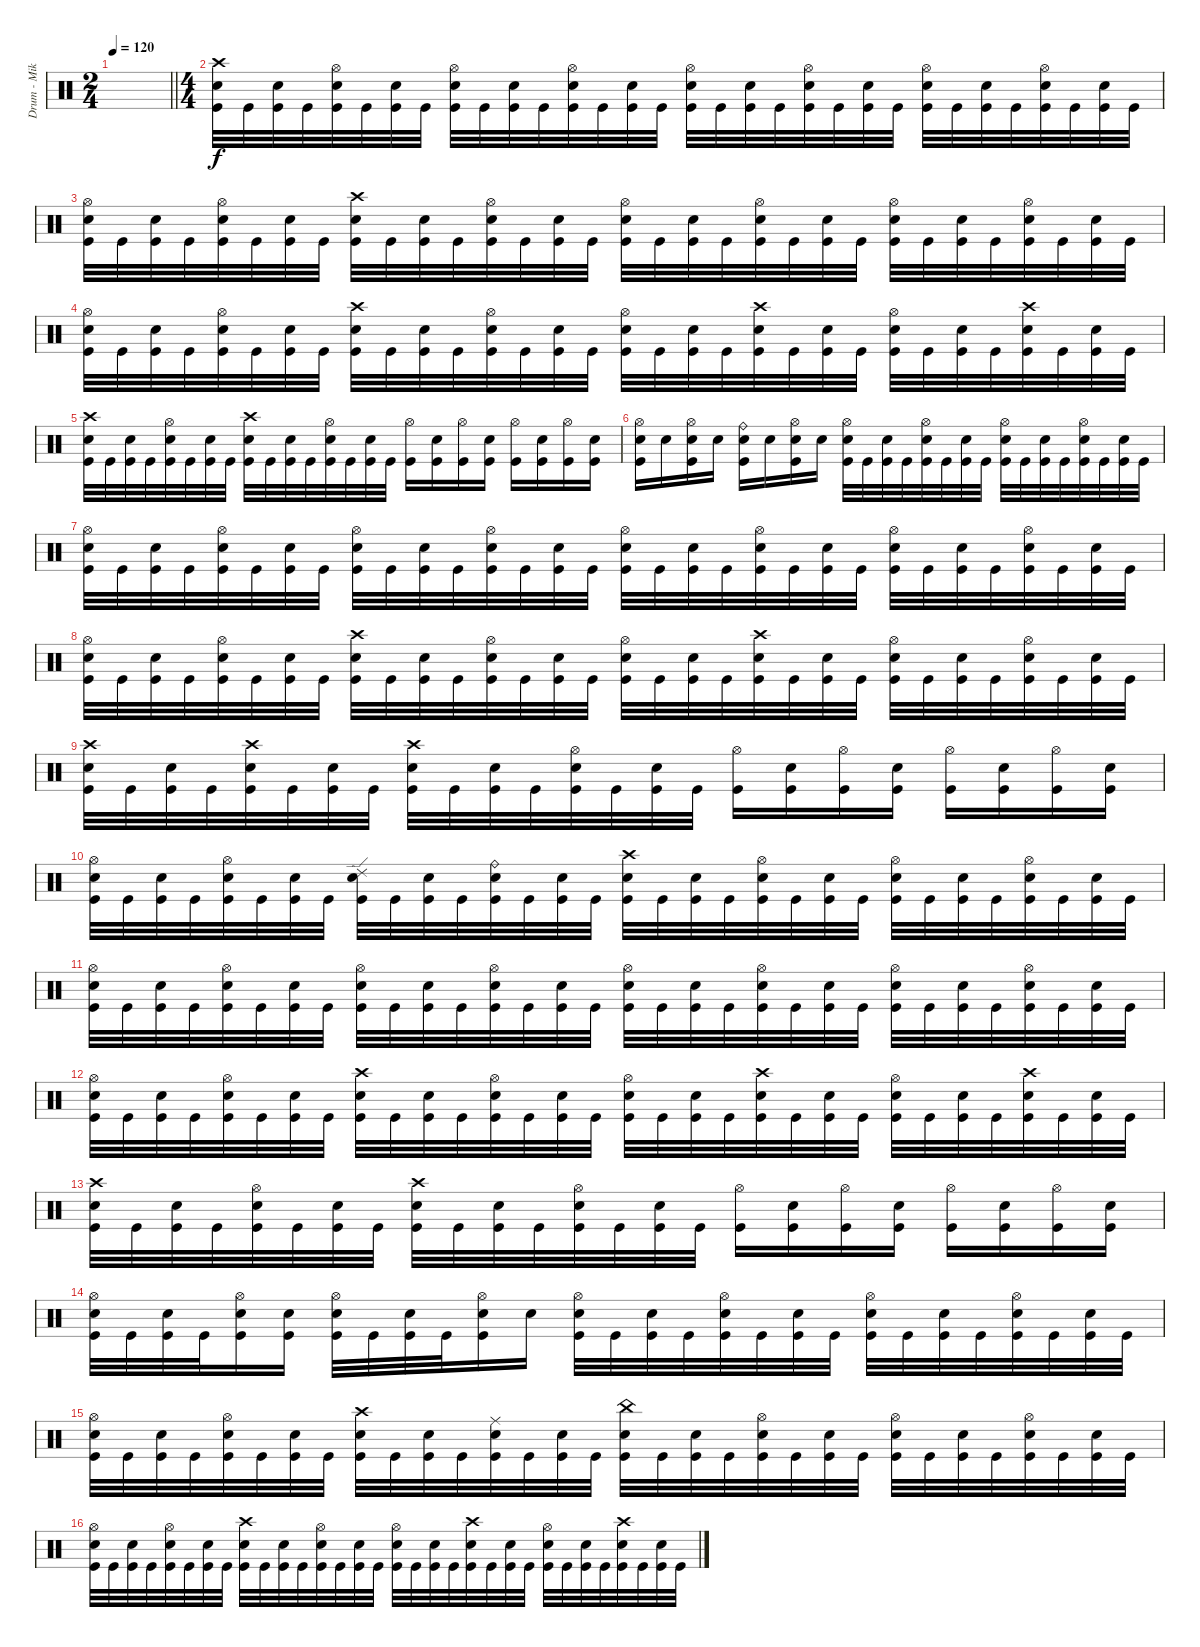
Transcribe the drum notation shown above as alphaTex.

\track ("Drum - Mike Collins" "Drum - Mik") {instrument percussion}
\staff {score}
\articulation defaults
\ts (2 4)
\tempo 120
\clef neutral
\barLineRight lightlight
\ks c
|
\ts (4 4)
("Crash high (hit)" "Electric Snare (hit)" "Kick (hit)").32 "Kick (hit)".32 ("Electric Snare (hit)" "Kick (hit)").32 "Kick (hit)".32 ("Hi-Hat (open)" "Electric Snare (hit)" "Kick (hit)").32 "Kick (hit)".32 ("Electric Snare (hit)" "Kick (hit)").32 "Kick (hit)".32 ("Hi-Hat (open)" "Electric Snare (hit)" "Kick (hit)").32 "Kick (hit)".32 ("Electric Snare (hit)" "Kick (hit)").32 "Kick (hit)".32 ("Hi-Hat (open)" "Electric Snare (hit)" "Kick (hit)").32 "Kick (hit)".32 ("Electric Snare (hit)" "Kick (hit)").32 "Kick (hit)".32 ("Hi-Hat (open)" "Electric Snare (hit)" "Kick (hit)").32 "Kick (hit)".32 ("Electric Snare (hit)" "Kick (hit)").32 "Kick (hit)".32 ("Hi-Hat (open)" "Electric Snare (hit)" "Kick (hit)").32 "Kick (hit)".32 ("Electric Snare (hit)" "Kick (hit)").32 "Kick (hit)".32 ("Hi-Hat (open)" "Electric Snare (hit)" "Kick (hit)").32 "Kick (hit)".32 ("Electric Snare (hit)" "Kick (hit)").32 "Kick (hit)".32 ("Hi-Hat (open)" "Electric Snare (hit)" "Kick (hit)").32 "Kick (hit)".32 ("Electric Snare (hit)" "Kick (hit)").32 "Kick (hit)".32 |
("Hi-Hat (open)" "Electric Snare (hit)" "Kick (hit)").32 "Kick (hit)".32 ("Electric Snare (hit)" "Kick (hit)").32 "Kick (hit)".32 ("Hi-Hat (open)" "Electric Snare (hit)" "Kick (hit)").32 "Kick (hit)".32 ("Electric Snare (hit)" "Kick (hit)").32 "Kick (hit)".32 ("Crash high (hit)" "Electric Snare (hit)" "Kick (hit)").32 "Kick (hit)".32 ("Electric Snare (hit)" "Kick (hit)").32 "Kick (hit)".32 ("Hi-Hat (open)" "Electric Snare (hit)" "Kick (hit)").32 "Kick (hit)".32 ("Electric Snare (hit)" "Kick (hit)").32 "Kick (hit)".32 ("Hi-Hat (open)" "Electric Snare (hit)" "Kick (hit)").32 "Kick (hit)".32 ("Electric Snare (hit)" "Kick (hit)").32 "Kick (hit)".32 ("Hi-Hat (open)" "Electric Snare (hit)" "Kick (hit)").32 "Kick (hit)".32 ("Electric Snare (hit)" "Kick (hit)").32 "Kick (hit)".32 ("Hi-Hat (open)" "Electric Snare (hit)" "Kick (hit)").32 "Kick (hit)".32 ("Electric Snare (hit)" "Kick (hit)").32 "Kick (hit)".32 ("Hi-Hat (open)" "Electric Snare (hit)" "Kick (hit)").32 "Kick (hit)".32 ("Electric Snare (hit)" "Kick (hit)").32 "Kick (hit)".32 |
("Hi-Hat (open)" "Electric Snare (hit)" "Kick (hit)").32 "Kick (hit)".32 ("Electric Snare (hit)" "Kick (hit)").32 "Kick (hit)".32 ("Hi-Hat (open)" "Electric Snare (hit)" "Kick (hit)").32 "Kick (hit)".32 ("Electric Snare (hit)" "Kick (hit)").32 "Kick (hit)".32 ("Crash high (hit)" "Electric Snare (hit)" "Kick (hit)").32 "Kick (hit)".32 ("Electric Snare (hit)" "Kick (hit)").32 "Kick (hit)".32 ("Hi-Hat (open)" "Electric Snare (hit)" "Kick (hit)").32 "Kick (hit)".32 ("Electric Snare (hit)" "Kick (hit)").32 "Kick (hit)".32 ("Hi-Hat (open)" "Electric Snare (hit)" "Kick (hit)").32 "Kick (hit)".32 ("Electric Snare (hit)" "Kick (hit)").32 "Kick (hit)".32 ("Crash high (hit)" "Electric Snare (hit)" "Kick (hit)").32 "Kick (hit)".32 ("Electric Snare (hit)" "Kick (hit)").32 "Kick (hit)".32 ("Hi-Hat (open)" "Electric Snare (hit)" "Kick (hit)").32 "Kick (hit)".32 ("Electric Snare (hit)" "Kick (hit)").32 "Kick (hit)".32 ("Crash high (hit)" "Electric Snare (hit)" "Kick (hit)").32 "Kick (hit)".32 ("Electric Snare (hit)" "Kick (hit)").32 "Kick (hit)".32 |
("Crash high (hit)" "Electric Snare (hit)" "Kick (hit)").32 "Kick (hit)".32 ("Electric Snare (hit)" "Kick (hit)").32 "Kick (hit)".32 ("Hi-Hat (open)" "Electric Snare (hit)" "Kick (hit)").32 "Kick (hit)".32 ("Electric Snare (hit)" "Kick (hit)").32 "Kick (hit)".32 ("Crash high (hit)" "Electric Snare (hit)" "Kick (hit)").32 "Kick (hit)".32 ("Electric Snare (hit)" "Kick (hit)").32 "Kick (hit)".32 ("Hi-Hat (open)" "Electric Snare (hit)" "Kick (hit)").32 "Kick (hit)".32 ("Electric Snare (hit)" "Kick (hit)").32 "Kick (hit)".32 ("Hi-Hat (open)" "Kick (hit)").16 ("Electric Snare (hit)" "Kick (hit)").16 ("Hi-Hat (open)" "Kick (hit)").16 ("Electric Snare (hit)" "Kick (hit)").16 ("Hi-Hat (open)" "Kick (hit)").16 ("Electric Snare (hit)" "Kick (hit)").16 ("Hi-Hat (open)" "Kick (hit)").16 ("Electric Snare (hit)" "Kick (hit)").16 |
("Hi-Hat (open)" "Electric Snare (hit)" "Kick (hit)").16 "Electric Snare (hit)".16 ("Hi-Hat (open)" "Electric Snare (hit)" "Kick (hit)").16 "Electric Snare (hit)".16 ("Ride (bell)" "Electric Snare (hit)" "Kick (hit)").16 "Electric Snare (hit)".16 ("Hi-Hat (open)" "Electric Snare (hit)" "Kick (hit)").16 "Electric Snare (hit)".16 ("Hi-Hat (open)" "Electric Snare (hit)" "Kick (hit)").32 "Kick (hit)".32 ("Electric Snare (hit)" "Kick (hit)").32 "Kick (hit)".32 ("Hi-Hat (open)" "Electric Snare (hit)" "Kick (hit)").32 "Kick (hit)".32 ("Electric Snare (hit)" "Kick (hit)").32 "Kick (hit)".32 ("Hi-Hat (open)" "Electric Snare (hit)" "Kick (hit)").32 "Kick (hit)".32 ("Electric Snare (hit)" "Kick (hit)").32 "Kick (hit)".32 ("Hi-Hat (open)" "Electric Snare (hit)" "Kick (hit)").32 "Kick (hit)".32 ("Electric Snare (hit)" "Kick (hit)").32 "Kick (hit)".32 |
("Hi-Hat (open)" "Electric Snare (hit)" "Kick (hit)").32 "Kick (hit)".32 ("Electric Snare (hit)" "Kick (hit)").32 "Kick (hit)".32 ("Hi-Hat (open)" "Electric Snare (hit)" "Kick (hit)").32 "Kick (hit)".32 ("Electric Snare (hit)" "Kick (hit)").32 "Kick (hit)".32 ("Hi-Hat (open)" "Electric Snare (hit)" "Kick (hit)").32 "Kick (hit)".32 ("Electric Snare (hit)" "Kick (hit)").32 "Kick (hit)".32 ("Hi-Hat (open)" "Electric Snare (hit)" "Kick (hit)").32 "Kick (hit)".32 ("Electric Snare (hit)" "Kick (hit)").32 "Kick (hit)".32 ("Hi-Hat (open)" "Electric Snare (hit)" "Kick (hit)").32 "Kick (hit)".32 ("Electric Snare (hit)" "Kick (hit)").32 "Kick (hit)".32 ("Hi-Hat (open)" "Electric Snare (hit)" "Kick (hit)").32 "Kick (hit)".32 ("Electric Snare (hit)" "Kick (hit)").32 "Kick (hit)".32 ("Hi-Hat (open)" "Electric Snare (hit)" "Kick (hit)").32 "Kick (hit)".32 ("Electric Snare (hit)" "Kick (hit)").32 "Kick (hit)".32 ("Hi-Hat (open)" "Electric Snare (hit)" "Kick (hit)").32 "Kick (hit)".32 ("Electric Snare (hit)" "Kick (hit)").32 "Kick (hit)".32 |
("Hi-Hat (open)" "Electric Snare (hit)" "Kick (hit)").32 "Kick (hit)".32 ("Electric Snare (hit)" "Kick (hit)").32 "Kick (hit)".32 ("Hi-Hat (open)" "Electric Snare (hit)" "Kick (hit)").32 "Kick (hit)".32 ("Electric Snare (hit)" "Kick (hit)").32 "Kick (hit)".32 ("Crash high (hit)" "Electric Snare (hit)" "Kick (hit)").32 "Kick (hit)".32 ("Electric Snare (hit)" "Kick (hit)").32 "Kick (hit)".32 ("Hi-Hat (open)" "Electric Snare (hit)" "Kick (hit)").32 "Kick (hit)".32 ("Electric Snare (hit)" "Kick (hit)").32 "Kick (hit)".32 ("Hi-Hat (open)" "Electric Snare (hit)" "Kick (hit)").32 "Kick (hit)".32 ("Electric Snare (hit)" "Kick (hit)").32 "Kick (hit)".32 ("Crash high (hit)" "Electric Snare (hit)" "Kick (hit)").32 "Kick (hit)".32 ("Electric Snare (hit)" "Kick (hit)").32 "Kick (hit)".32 ("Hi-Hat (open)" "Electric Snare (hit)" "Kick (hit)").32 "Kick (hit)".32 ("Electric Snare (hit)" "Kick (hit)").32 "Kick (hit)".32 ("Hi-Hat (open)" "Electric Snare (hit)" "Kick (hit)").32 "Kick (hit)".32 ("Electric Snare (hit)" "Kick (hit)").32 "Kick (hit)".32 |
("Crash high (hit)" "Electric Snare (hit)" "Kick (hit)").32 "Kick (hit)".32 ("Electric Snare (hit)" "Kick (hit)").32 "Kick (hit)".32 ("Crash high (hit)" "Electric Snare (hit)" "Kick (hit)").32 "Kick (hit)".32 ("Electric Snare (hit)" "Kick (hit)").32 "Kick (hit)".32 ("Crash high (hit)" "Electric Snare (hit)" "Kick (hit)").32 "Kick (hit)".32 ("Electric Snare (hit)" "Kick (hit)").32 "Kick (hit)".32 ("Hi-Hat (open)" "Electric Snare (hit)" "Kick (hit)").32 "Kick (hit)".32 ("Electric Snare (hit)" "Kick (hit)").32 "Kick (hit)".32 ("Hi-Hat (open)" "Kick (hit)").16 ("Electric Snare (hit)" "Kick (hit)").16 ("Hi-Hat (open)" "Kick (hit)").16 ("Electric Snare (hit)" "Kick (hit)").16 ("Hi-Hat (open)" "Kick (hit)").16 ("Electric Snare (hit)" "Kick (hit)").16 ("Hi-Hat (open)" "Kick (hit)").16 ("Electric Snare (hit)" "Kick (hit)").16 |
("Hi-Hat (open)" "Electric Snare (hit)" "Kick (hit)").32 "Kick (hit)".32 ("Electric Snare (hit)" "Kick (hit)").32 "Kick (hit)".32 ("Hi-Hat (open)" "Electric Snare (hit)" "Kick (hit)").32 "Kick (hit)".32 ("Electric Snare (hit)" "Kick (hit)").32 "Kick (hit)".32 ("Ride (edge) 2" "Electric Snare (hit)" "Kick (hit)").32 "Kick (hit)".32 ("Electric Snare (hit)" "Kick (hit)").32 "Kick (hit)".32 ("Ride (bell)" "Electric Snare (hit)" "Kick (hit)").32 "Kick (hit)".32 ("Electric Snare (hit)" "Kick (hit)").32 "Kick (hit)".32 ("Crash high (hit)" "Electric Snare (hit)" "Kick (hit)").32 "Kick (hit)".32 ("Electric Snare (hit)" "Kick (hit)").32 "Kick (hit)".32 ("Hi-Hat (open)" "Electric Snare (hit)" "Kick (hit)").32 "Kick (hit)".32 ("Electric Snare (hit)" "Kick (hit)").32 "Kick (hit)".32 ("Hi-Hat (open)" "Electric Snare (hit)" "Kick (hit)").32 "Kick (hit)".32 ("Electric Snare (hit)" "Kick (hit)").32 "Kick (hit)".32 ("Hi-Hat (open)" "Electric Snare (hit)" "Kick (hit)").32 "Kick (hit)".32 ("Electric Snare (hit)" "Kick (hit)").32 "Kick (hit)".32 |
("Hi-Hat (open)" "Electric Snare (hit)" "Kick (hit)").32 "Kick (hit)".32 ("Electric Snare (hit)" "Kick (hit)").32 "Kick (hit)".32 ("Hi-Hat (open)" "Electric Snare (hit)" "Kick (hit)").32 "Kick (hit)".32 ("Electric Snare (hit)" "Kick (hit)").32 "Kick (hit)".32 ("Hi-Hat (open)" "Electric Snare (hit)" "Kick (hit)").32 "Kick (hit)".32 ("Electric Snare (hit)" "Kick (hit)").32 "Kick (hit)".32 ("Hi-Hat (open)" "Electric Snare (hit)" "Kick (hit)").32 "Kick (hit)".32 ("Electric Snare (hit)" "Kick (hit)").32 "Kick (hit)".32 ("Hi-Hat (open)" "Electric Snare (hit)" "Kick (hit)").32 "Kick (hit)".32 ("Electric Snare (hit)" "Kick (hit)").32 "Kick (hit)".32 ("Hi-Hat (open)" "Electric Snare (hit)" "Kick (hit)").32 "Kick (hit)".32 ("Electric Snare (hit)" "Kick (hit)").32 "Kick (hit)".32 ("Hi-Hat (open)" "Electric Snare (hit)" "Kick (hit)").32 "Kick (hit)".32 ("Electric Snare (hit)" "Kick (hit)").32 "Kick (hit)".32 ("Hi-Hat (open)" "Electric Snare (hit)" "Kick (hit)").32 "Kick (hit)".32 ("Electric Snare (hit)" "Kick (hit)").32 "Kick (hit)".32 |
("Hi-Hat (open)" "Electric Snare (hit)" "Kick (hit)").32 "Kick (hit)".32 ("Electric Snare (hit)" "Kick (hit)").32 "Kick (hit)".32 ("Hi-Hat (open)" "Electric Snare (hit)" "Kick (hit)").32 "Kick (hit)".32 ("Electric Snare (hit)" "Kick (hit)").32 "Kick (hit)".32 ("Crash high (hit)" "Electric Snare (hit)" "Kick (hit)").32 "Kick (hit)".32 ("Electric Snare (hit)" "Kick (hit)").32 "Kick (hit)".32 ("Hi-Hat (open)" "Electric Snare (hit)" "Kick (hit)").32 "Kick (hit)".32 ("Electric Snare (hit)" "Kick (hit)").32 "Kick (hit)".32 ("Hi-Hat (open)" "Electric Snare (hit)" "Kick (hit)").32 "Kick (hit)".32 ("Electric Snare (hit)" "Kick (hit)").32 "Kick (hit)".32 ("Crash high (hit)" "Electric Snare (hit)" "Kick (hit)").32 "Kick (hit)".32 ("Electric Snare (hit)" "Kick (hit)").32 "Kick (hit)".32 ("Hi-Hat (open)" "Electric Snare (hit)" "Kick (hit)").32 "Kick (hit)".32 ("Electric Snare (hit)" "Kick (hit)").32 "Kick (hit)".32 ("Crash high (hit)" "Electric Snare (hit)" "Kick (hit)").32 "Kick (hit)".32 ("Electric Snare (hit)" "Kick (hit)").32 "Kick (hit)".32 |
("Crash high (hit)" "Electric Snare (hit)" "Kick (hit)").32 "Kick (hit)".32 ("Electric Snare (hit)" "Kick (hit)").32 "Kick (hit)".32 ("Hi-Hat (open)" "Electric Snare (hit)" "Kick (hit)").32 "Kick (hit)".32 ("Electric Snare (hit)" "Kick (hit)").32 "Kick (hit)".32 ("Crash high (hit)" "Electric Snare (hit)" "Kick (hit)").32 "Kick (hit)".32 ("Electric Snare (hit)" "Kick (hit)").32 "Kick (hit)".32 ("Hi-Hat (open)" "Electric Snare (hit)" "Kick (hit)").32 "Kick (hit)".32 ("Electric Snare (hit)" "Kick (hit)").32 "Kick (hit)".32 ("Hi-Hat (open)" "Kick (hit)").16 ("Electric Snare (hit)" "Kick (hit)").16 ("Hi-Hat (open)" "Kick (hit)").16 ("Electric Snare (hit)" "Kick (hit)").16 ("Hi-Hat (open)" "Kick (hit)").16 ("Electric Snare (hit)" "Kick (hit)").16 ("Hi-Hat (open)" "Kick (hit)").16 ("Electric Snare (hit)" "Kick (hit)").16 |
("Hi-Hat (open)" "Electric Snare (hit)" "Kick (hit)").32 "Kick (hit)".32 ("Electric Snare (hit)" "Kick (hit)").32 "Kick (hit)".32 ("Hi-Hat (open)" "Electric Snare (hit)" "Kick (hit)").16 ("Electric Snare (hit)" "Kick (hit)").16 ("Hi-Hat (open)" "Electric Snare (hit)" "Kick (hit)").32 "Kick (hit)".32 ("Electric Snare (hit)" "Kick (hit)").32 "Kick (hit)".32 ("Hi-Hat (open)" "Electric Snare (hit)" "Kick (hit)").16 "Electric Snare (hit)".16 ("Hi-Hat (open)" "Electric Snare (hit)" "Kick (hit)").32 "Kick (hit)".32 ("Electric Snare (hit)" "Kick (hit)").32 "Kick (hit)".32 ("Hi-Hat (open)" "Electric Snare (hit)" "Kick (hit)").32 "Kick (hit)".32 ("Electric Snare (hit)" "Kick (hit)").32 "Kick (hit)".32 ("Hi-Hat (open)" "Electric Snare (hit)" "Kick (hit)").32 "Kick (hit)".32 ("Electric Snare (hit)" "Kick (hit)").32 "Kick (hit)".32 ("Hi-Hat (open)" "Electric Snare (hit)" "Kick (hit)").32 "Kick (hit)".32 ("Electric Snare (hit)" "Kick (hit)").32 "Kick (hit)".32 |
("Hi-Hat (open)" "Electric Snare (hit)" "Kick (hit)").32 "Kick (hit)".32 ("Electric Snare (hit)" "Kick (hit)").32 "Kick (hit)".32 ("Hi-Hat (open)" "Electric Snare (hit)" "Kick (hit)").32 "Kick (hit)".32 ("Electric Snare (hit)" "Kick (hit)").32 "Kick (hit)".32 ("Crash high (hit)" "Electric Snare (hit)" "Kick (hit)").32 "Kick (hit)".32 ("Electric Snare (hit)" "Kick (hit)").32 "Kick (hit)".32 ("Ride (middle)" "Electric Snare (hit)" "Kick (hit)").32 "Kick (hit)".32 ("Electric Snare (hit)" "Kick (hit)").32 "Kick (hit)".32 ("China (hit)" "Electric Snare (hit)" "Kick (hit)").32 "Kick (hit)".32 ("Electric Snare (hit)" "Kick (hit)").32 "Kick (hit)".32 ("Hi-Hat (open)" "Electric Snare (hit)" "Kick (hit)").32 "Kick (hit)".32 ("Electric Snare (hit)" "Kick (hit)").32 "Kick (hit)".32 ("Hi-Hat (open)" "Electric Snare (hit)" "Kick (hit)").32 "Kick (hit)".32 ("Electric Snare (hit)" "Kick (hit)").32 "Kick (hit)".32 ("Hi-Hat (open)" "Electric Snare (hit)" "Kick (hit)").32 "Kick (hit)".32 ("Electric Snare (hit)" "Kick (hit)").32 "Kick (hit)".32 |
("Hi-Hat (open)" "Electric Snare (hit)" "Kick (hit)").32 "Kick (hit)".32 ("Electric Snare (hit)" "Kick (hit)").32 "Kick (hit)".32 ("Hi-Hat (open)" "Electric Snare (hit)" "Kick (hit)").32 "Kick (hit)".32 ("Electric Snare (hit)" "Kick (hit)").32 "Kick (hit)".32 ("Crash high (hit)" "Electric Snare (hit)" "Kick (hit)").32 "Kick (hit)".32 ("Electric Snare (hit)" "Kick (hit)").32 "Kick (hit)".32 ("Hi-Hat (open)" "Electric Snare (hit)" "Kick (hit)").32 "Kick (hit)".32 ("Electric Snare (hit)" "Kick (hit)").32 "Kick (hit)".32 ("Hi-Hat (open)" "Electric Snare (hit)" "Kick (hit)").32 "Kick (hit)".32 ("Electric Snare (hit)" "Kick (hit)").32 "Kick (hit)".32 ("Crash high (hit)" "Electric Snare (hit)" "Kick (hit)").32 "Kick (hit)".32 ("Electric Snare (hit)" "Kick (hit)").32 "Kick (hit)".32 ("Hi-Hat (open)" "Electric Snare (hit)" "Kick (hit)").32 "Kick (hit)".32 ("Electric Snare (hit)" "Kick (hit)").32 "Kick (hit)".32 ("Crash high (hit)" "Electric Snare (hit)" "Kick (hit)").32 "Kick (hit)".32 ("Electric Snare (hit)" "Kick (hit)").32 "Kick (hit)".32
